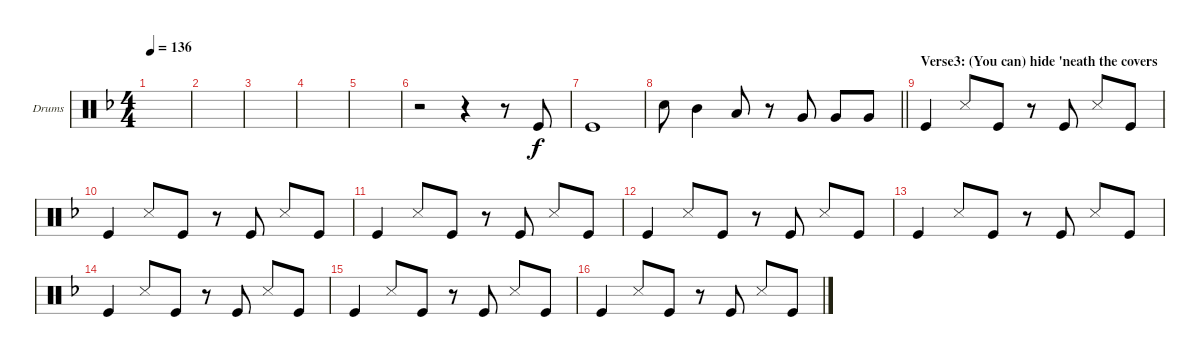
\bracketExtendMode groupsimilarinstruments
\firstSystemTrackNameOrientation horizontal
\otherSystemsTrackNameOrientation horizontal
\track ("Drumkit" "Drums") {instrument percussion}
\staff {score}
\articulation defaults
\ts (4 4)
\tempo 136
\clef neutral
\scale
0.333333
\ks f
|
\scale
0.333333 |
\scale
0.333333 |
\scale
0.333333 |
\scale
0.333333 |
\scale
0.333333 r.2 r.4 r.8 "Kick (hit)".8 |
\scale
0.333333 "Kick (hit)".1 |
\scale
0.333333
\barLineRight lightlight "Snare (hit) 2".8 "Mid Tom (hit)".4 "Low Tom (hit)".8
r.8 "Very Low Tom (hit)".8 "Very Low Tom (hit)".8 "Very Low Tom (hit)".8 |
\section ("" "Verse3: (You can) hide 'neath the covers")
\scale
0.333333 "Kick (hit)".4 "Snare (side stick) 3".8 "Kick (hit)".8 r.8 "Kick (hit)".8 "Snare (side stick) 3".8 "Kick (hit)".8 |
\scale
0.333333 "Kick (hit)".4 "Snare (side stick) 3".8 "Kick (hit)".8 r.8 "Kick (hit)".8 "Snare (side stick) 3".8 "Kick (hit)".8 |
\scale
0.333333 "Kick (hit)".4 "Snare (side stick) 3".8 "Kick (hit)".8 r.8 "Kick (hit)".8 "Snare (side stick) 3".8 "Kick (hit)".8 |
\scale
0.333333 "Kick (hit)".4 "Snare (side stick) 3".8 "Kick (hit)".8 r.8 "Kick (hit)".8 "Snare (side stick) 3".8 "Kick (hit)".8 |
\scale
0.333333 "Kick (hit)".4 "Snare (side stick) 3".8 "Kick (hit)".8 r.8 "Kick (hit)".8 "Snare (side stick) 3".8 "Kick (hit)".8 |
\scale
0.333333 "Kick (hit)".4 "Snare (side stick) 3".8 "Kick (hit)".8 r.8 "Kick (hit)".8 "Snare (side stick) 3".8 "Kick (hit)".8 |
\scale
0.333333 "Kick (hit)".4 "Snare (side stick) 3".8 "Kick (hit)".8 r.8 "Kick (hit)".8 "Snare (side stick) 3".8 "Kick (hit)".8 |
\scale
0.333333 "Kick (hit)".4 "Snare (side stick) 3".8 "Kick (hit)".8 r.8 "Kick (hit)".8 "Snare (side stick) 3".8 "Kick (hit)".8
